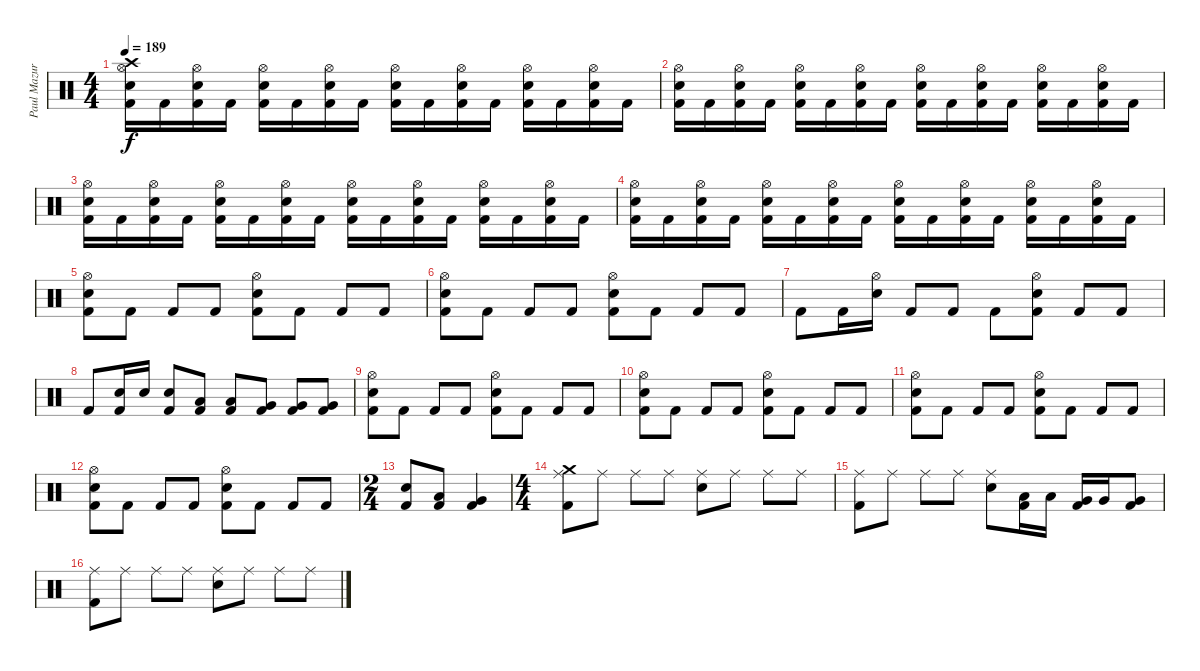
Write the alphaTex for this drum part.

\track ("Paul Mazurkevitch" "Paul Mazur") {instrument percussion}
\staff {score}
\articulation defaults
\ts (4 4)
\tempo 189
\clef neutral
\ks c
("Crash high (hit)" "Hi-Hat (open)" "Electric Snare (hit)" "Kick (hit) 2").16{dy f} "Kick (hit) 2".16 ("Hi-Hat (open)" "Electric Snare (hit)" "Kick (hit) 2").16 "Kick (hit) 2".16 ("Hi-Hat (open)" "Electric Snare (hit)" "Kick (hit) 2").16 "Kick (hit) 2".16 ("Hi-Hat (open)" "Electric Snare (hit)" "Kick (hit) 2").16 "Kick (hit) 2".16 ("Hi-Hat (open)" "Electric Snare (hit)" "Kick (hit) 2").16 "Kick (hit) 2".16 ("Hi-Hat (open)" "Electric Snare (hit)" "Kick (hit) 2").16 "Kick (hit) 2".16 ("Hi-Hat (open)" "Electric Snare (hit)" "Kick (hit) 2").16 "Kick (hit) 2".16 ("Hi-Hat (open)" "Electric Snare (hit)" "Kick (hit) 2").16 "Kick (hit) 2".16 |
("Hi-Hat (open)" "Electric Snare (hit)" "Kick (hit) 2").16 "Kick (hit) 2".16 ("Hi-Hat (open)" "Electric Snare (hit)" "Kick (hit) 2").16 "Kick (hit) 2".16 ("Hi-Hat (open)" "Electric Snare (hit)" "Kick (hit) 2").16 "Kick (hit) 2".16 ("Hi-Hat (open)" "Electric Snare (hit)" "Kick (hit) 2").16 "Kick (hit) 2".16 ("Hi-Hat (open)" "Electric Snare (hit)" "Kick (hit) 2").16 "Kick (hit) 2".16 ("Hi-Hat (open)" "Electric Snare (hit)" "Kick (hit) 2").16 "Kick (hit) 2".16 ("Hi-Hat (open)" "Electric Snare (hit)" "Kick (hit) 2").16 "Kick (hit) 2".16 ("Hi-Hat (open)" "Electric Snare (hit)" "Kick (hit) 2").16 "Kick (hit) 2".16 |
("Hi-Hat (open)" "Electric Snare (hit)" "Kick (hit) 2").16 "Kick (hit) 2".16 ("Hi-Hat (open)" "Electric Snare (hit)" "Kick (hit) 2").16 "Kick (hit) 2".16 ("Hi-Hat (open)" "Electric Snare (hit)" "Kick (hit) 2").16 "Kick (hit) 2".16 ("Hi-Hat (open)" "Electric Snare (hit)" "Kick (hit) 2").16 "Kick (hit) 2".16 ("Hi-Hat (open)" "Electric Snare (hit)" "Kick (hit) 2").16 "Kick (hit) 2".16 ("Hi-Hat (open)" "Electric Snare (hit)" "Kick (hit) 2").16 "Kick (hit) 2".16 ("Hi-Hat (open)" "Electric Snare (hit)" "Kick (hit) 2").16 "Kick (hit) 2".16 ("Hi-Hat (open)" "Electric Snare (hit)" "Kick (hit) 2").16 "Kick (hit) 2".16 |
("Hi-Hat (open)" "Electric Snare (hit)" "Kick (hit) 2").16 "Kick (hit) 2".16 ("Hi-Hat (open)" "Electric Snare (hit)" "Kick (hit) 2").16 "Kick (hit) 2".16 ("Hi-Hat (open)" "Electric Snare (hit)" "Kick (hit) 2").16 "Kick (hit) 2".16 ("Hi-Hat (open)" "Electric Snare (hit)" "Kick (hit) 2").16 "Kick (hit) 2".16 ("Hi-Hat (open)" "Electric Snare (hit)" "Kick (hit) 2").16 "Kick (hit) 2".16 ("Hi-Hat (open)" "Electric Snare (hit)" "Kick (hit) 2").16 "Kick (hit) 2".16 ("Hi-Hat (open)" "Electric Snare (hit)" "Kick (hit) 2").16 "Kick (hit) 2".16 ("Hi-Hat (open)" "Electric Snare (hit)" "Kick (hit) 2").16 "Kick (hit) 2".16 |
("Hi-Hat (open)" "Electric Snare (hit)" "Kick (hit) 2").8 "Kick (hit) 2".8 "Kick (hit) 2".8 "Kick (hit) 2".8 ("Hi-Hat (open)" "Electric Snare (hit)" "Kick (hit) 2").8 "Kick (hit) 2".8 "Kick (hit) 2".8 "Kick (hit) 2".8 |
("Hi-Hat (open)" "Electric Snare (hit)" "Kick (hit) 2").8 "Kick (hit) 2".8 "Kick (hit) 2".8 "Kick (hit) 2".8 ("Hi-Hat (open)" "Electric Snare (hit)" "Kick (hit) 2").8 "Kick (hit) 2".8 "Kick (hit) 2".8 "Kick (hit) 2".8 |
"Kick (hit) 2".8 "Kick (hit) 2".16 ("Hi-Hat (open)" "Electric Snare (hit)").16 "Kick (hit) 2".8 "Kick (hit) 2".8 "Kick (hit) 2".8 ("Hi-Hat (open)" "Electric Snare (hit)" "Kick (hit) 2").8 "Kick (hit) 2".8 "Kick (hit) 2".8 |
"Kick (hit) 2".8 ("Electric Snare (hit)" "Kick (hit) 2").16 "Electric Snare (hit)".16 ("Electric Snare (hit)" "Kick (hit) 2").8 ("Low Tom (hit)" "Kick (hit) 2").8 ("Low Tom (hit)" "Kick (hit) 2").8 ("Very Low Tom (hit)" "Kick (hit) 2").8 ("Very Low Tom (hit)" "Kick (hit) 2").8 ("Very Low Tom (hit)" "Kick (hit) 2").8 |
("Hi-Hat (open)" "Electric Snare (hit)" "Kick (hit) 2").8 "Kick (hit) 2".8 "Kick (hit) 2".8 "Kick (hit) 2".8 ("Hi-Hat (open)" "Electric Snare (hit)" "Kick (hit) 2").8 "Kick (hit) 2".8 "Kick (hit) 2".8 "Kick (hit) 2".8 |
("Hi-Hat (open)" "Electric Snare (hit)" "Kick (hit) 2").8 "Kick (hit) 2".8 "Kick (hit) 2".8 "Kick (hit) 2".8 ("Hi-Hat (open)" "Electric Snare (hit)" "Kick (hit) 2").8 "Kick (hit) 2".8 "Kick (hit) 2".8 "Kick (hit) 2".8 |
("Hi-Hat (open)" "Electric Snare (hit)" "Kick (hit) 2").8 "Kick (hit) 2".8 "Kick (hit) 2".8 "Kick (hit) 2".8 ("Hi-Hat (open)" "Electric Snare (hit)" "Kick (hit) 2").8 "Kick (hit) 2".8 "Kick (hit) 2".8 "Kick (hit) 2".8 |
("Hi-Hat (open)" "Electric Snare (hit)" "Kick (hit) 2").8 "Kick (hit) 2".8 "Kick (hit) 2".8 "Kick (hit) 2".8 ("Hi-Hat (open)" "Electric Snare (hit)" "Kick (hit) 2").8 "Kick (hit) 2".8 "Kick (hit) 2".8 "Kick (hit) 2".8 |
\ts (2 4)
("Electric Snare (hit)" "Kick (hit) 2").8 ("Low Tom (hit)" "Kick (hit) 2").8 ("Very Low Tom (hit)" "Kick (hit) 2").4 |
\ts (4 4)
("Crash medium (hit)" "Ride (middle)" "Kick (hit) 2").8 "Ride (middle)".8 "Ride (middle)".8 "Ride (middle)".8 ("Ride (middle)" "Electric Snare (hit)").8 "Ride (middle)".8 "Ride (middle)".8 "Ride (middle)".8 |
("Ride (middle)" "Kick (hit) 2").8 "Ride (middle)".8 "Ride (middle)".8 "Ride (middle)".8 ("Ride (middle)" "Electric Snare (hit)").8 ("Low Tom (hit)" "Kick (hit) 2").16 "Low Tom (hit)".16 ("Very Low Tom (hit)" "Kick (hit) 2").16 "Very Low Tom (hit)".16 ("Very Low Tom (hit)" "Kick (hit) 2").8 |
("Ride (middle)" "Kick (hit) 2").8 "Ride (middle)".8 "Ride (middle)".8 "Ride (middle)".8 ("Ride (middle)" "Electric Snare (hit)").8 "Ride (middle)".8 "Ride (middle)".8 "Ride (middle)".8
